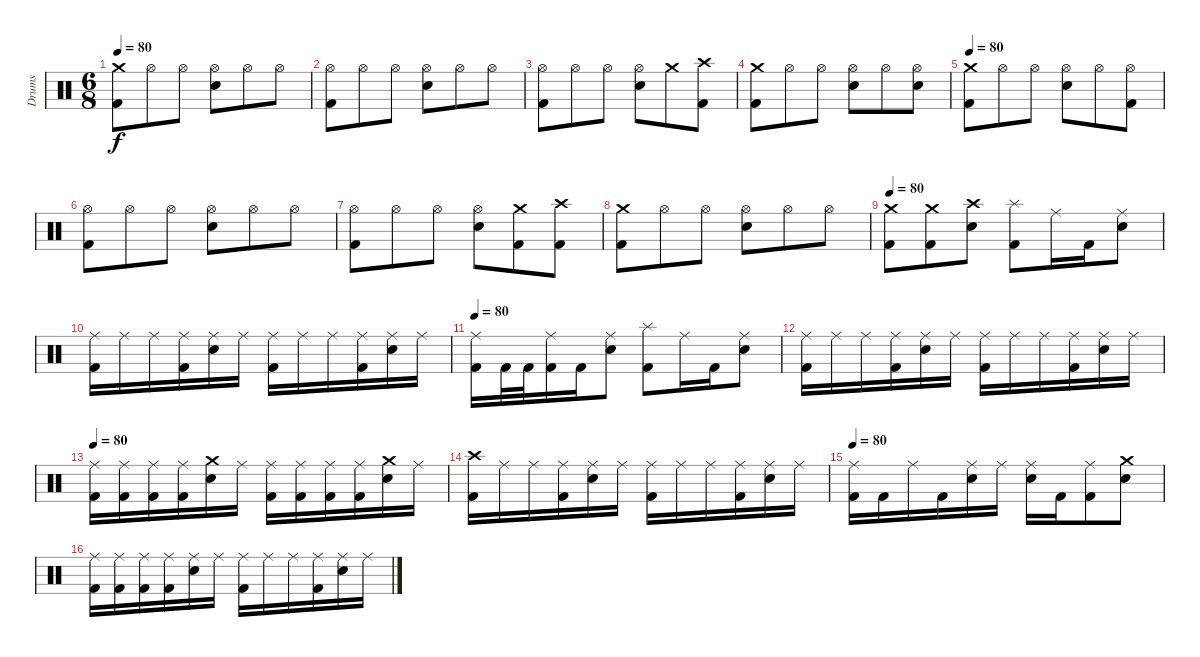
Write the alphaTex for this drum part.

\track ("Drums" "Drums") {instrument percussion}
\staff {score}
\articulation defaults
\ts (6 8)
\tempo 80
\clef neutral
\ks c
("Crash medium (hit)" "Kick (hit) 2").8{dy f} "Hi-Hat (open)".8 "Hi-Hat (open)".8 ("Hi-Hat (open)" "Electric Snare (hit)").8 "Hi-Hat (open)".8 "Hi-Hat (open)".8 |
("Hi-Hat (open)" "Kick (hit) 2").8 "Hi-Hat (open)".8 "Hi-Hat (open)".8 ("Hi-Hat (open)" "Electric Snare (hit)").8 "Hi-Hat (open)".8 "Hi-Hat (open)".8 |
("Hi-Hat (open)" "Kick (hit) 2").8 "Hi-Hat (open)".8 "Hi-Hat (open)".8 ("Hi-Hat (open)" "Electric Snare (hit)").8 "Crash medium (hit)".8 ("Crash high (hit)" "Kick (hit) 2").8 |
("Crash medium (hit)" "Kick (hit) 2").8 "Hi-Hat (open)".8 "Hi-Hat (open)".8 ("Hi-Hat (open)" "Electric Snare (hit)").8 "Hi-Hat (open)".8 ("Hi-Hat (open)" "Electric Snare (hit)").8 |
\tempo 80
("Crash medium (hit)" "Kick (hit) 2").8 "Hi-Hat (open)".8 "Hi-Hat (open)".8 ("Hi-Hat (open)" "Electric Snare (hit)").8 "Hi-Hat (open)".8 ("Hi-Hat (open)" "Kick (hit) 2").8 |
("Hi-Hat (open)" "Kick (hit) 2").8 "Hi-Hat (open)".8 "Hi-Hat (open)".8 ("Hi-Hat (open)" "Electric Snare (hit)").8 "Hi-Hat (open)".8 "Hi-Hat (open)".8 |
("Hi-Hat (open)" "Kick (hit) 2").8 "Hi-Hat (open)".8 "Hi-Hat (open)".8 ("Hi-Hat (open)" "Electric Snare (hit)").8 ("Crash medium (hit)" "Kick (hit) 2").8 ("Crash high (hit)" "Kick (hit) 2").8 |
("Crash medium (hit)" "Kick (hit) 2").8 "Hi-Hat (open)".8 "Hi-Hat (open)".8 ("Hi-Hat (open)" "Electric Snare (hit)").8 "Hi-Hat (open)".8 "Hi-Hat (open)".8 |
\tempo 80
("Kick (hit) 2" "Crash medium (hit)").8 ("Kick (hit) 2" "Crash medium (hit)").8 ("Electric Snare (hit)" "Crash high (hit)").8 ("Kick (hit) 2" "Splash (hit)").8 "Ride (middle)".16 "Kick (hit) 2".16 ("Electric Snare (hit)" "Ride (middle)").8 |
("Kick (hit) 2" "Ride (middle)").16 "Ride (middle)".16 "Ride (middle)".16 ("Kick (hit) 2" "Ride (middle)").16 ("Electric Snare (hit)" "Ride (middle)").16 "Ride (middle)".16 ("Kick (hit) 2" "Ride (middle)").16 "Ride (middle)".16 "Ride (middle)".16 ("Kick (hit) 2" "Ride (middle)").16 ("Electric Snare (hit)" "Ride (middle)").16 "Ride (middle)".16 |
\tempo 80
("Kick (hit) 2" "Ride (middle)").16 "Kick (hit) 2".32 "Kick (hit) 2".32 ("Kick (hit) 2" "Ride (middle)").16 "Kick (hit) 2".16 ("Electric Snare (hit)" "Ride (middle)").8 ("Kick (hit) 2" "Splash (hit)").8 "Ride (middle)".16 "Kick (hit) 2".16 ("Electric Snare (hit)" "Ride (middle)").8 |
("Kick (hit) 2" "Ride (middle)").16 "Ride (middle)".16 "Ride (middle)".16 ("Kick (hit) 2" "Ride (middle)").16 ("Electric Snare (hit)" "Ride (middle)").16 "Ride (middle)".16 ("Kick (hit) 2" "Ride (middle)").16 "Ride (middle)".16 "Ride (middle)".16 ("Kick (hit) 2" "Ride (middle)").16 ("Electric Snare (hit)" "Ride (middle)").16 "Ride (middle)".16 |
\tempo 80
("Kick (hit) 2" "Ride (middle)").16 ("Kick (hit) 2" "Ride (middle)").16 ("Kick (hit) 2" "Ride (middle)").16 ("Kick (hit) 2" "Ride (middle)").16 ("Electric Snare (hit)" "Crash medium (hit)").16 "Ride (middle)".16 ("Kick (hit) 2" "Ride (middle)").16 ("Kick (hit) 2" "Ride (middle)").16 ("Kick (hit) 2" "Ride (middle)").16 ("Kick (hit) 2" "Ride (middle)").16 ("Electric Snare (hit)" "Crash medium (hit)").16 "Ride (middle)".16 |
("Kick (hit) 2" "Crash high (hit)").16 "Ride (middle)".16 "Ride (middle)".16 ("Kick (hit) 2" "Ride (middle)").16 ("Electric Snare (hit)" "Ride (middle)").16 "Ride (middle)".16 ("Kick (hit) 2" "Ride (middle)").16 "Ride (middle)".16 "Ride (middle)".16 ("Kick (hit) 2" "Ride (middle)").16 ("Electric Snare (hit)" "Ride (middle)").16 "Ride (middle)".16 |
\tempo 80
("Kick (hit) 2" "Ride (middle)").16 "Kick (hit) 2".16 "Ride (middle)".16 "Kick (hit) 2".16 ("Electric Snare (hit)" "Ride (middle)").16 "Ride (middle)".16 ("Electric Snare (hit)" "Ride (middle)").16 "Kick (hit) 2".16 ("Kick (hit) 2" "Ride (middle)").8 ("Electric Snare (hit)" "Crash medium (hit)").8 |
("Kick (hit) 2" "Ride (middle)").16 ("Kick (hit) 2" "Ride (middle)").16 ("Kick (hit) 2" "Ride (middle)").16 ("Kick (hit) 2" "Ride (middle)").16 ("Electric Snare (hit)" "Ride (middle)").16 "Ride (middle)".16 ("Kick (hit) 2" "Ride (middle)").16 "Ride (middle)".16 "Ride (middle)".16 ("Kick (hit) 2" "Ride (middle)").16 ("Electric Snare (hit)" "Ride (middle)").16 "Ride (middle)".16
